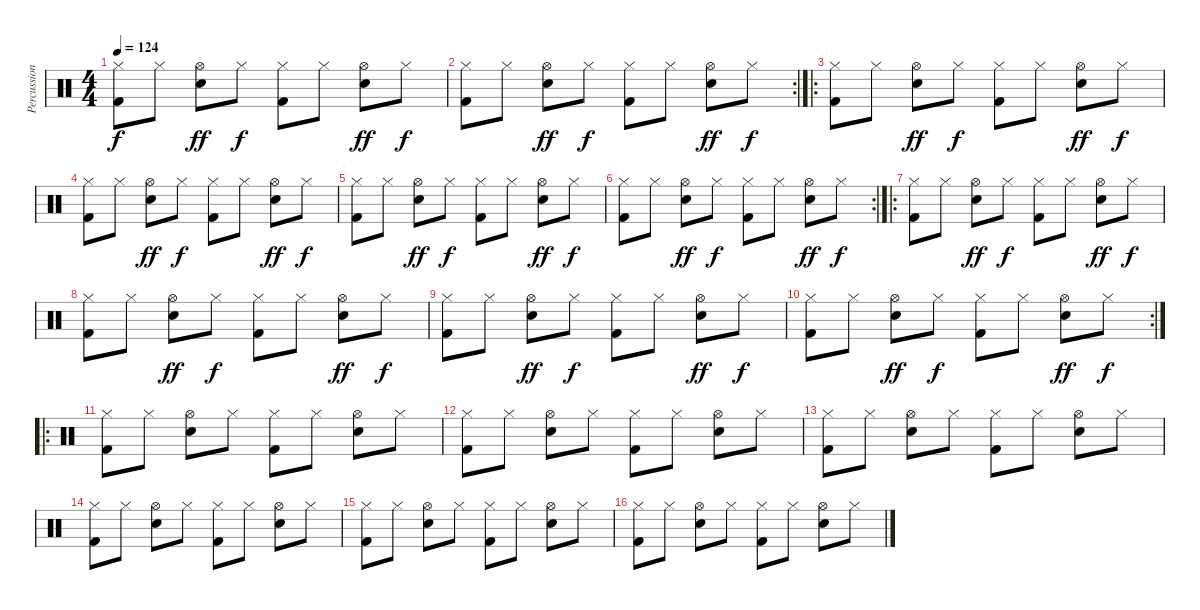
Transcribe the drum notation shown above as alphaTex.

\track ("Percussion" "Percussion") {instrument percussion}
\staff {score}
\articulation defaults
\ts (4 4)
\tempo 124
\clef neutral
\ks c
("Hi-Hat (closed)" "Kick (hit) 2").8{dy f} "Hi-Hat (closed)".8 ("Hi-Hat (open)" "Snare (hit) 2").8{dy ff} "Hi-Hat (closed)".8{dy f} ("Hi-Hat (closed)" "Kick (hit) 2").8 "Hi-Hat (closed)".8 ("Hi-Hat (open)" "Snare (hit) 2").8{dy ff} "Hi-Hat (closed)".8{dy f} |
\rc 2
("Hi-Hat (closed)" "Kick (hit) 2").8 "Hi-Hat (closed)".8 ("Hi-Hat (open)" "Snare (hit) 2").8{dy ff} "Hi-Hat (closed)".8{dy f} ("Hi-Hat (closed)" "Kick (hit) 2").8 "Hi-Hat (closed)".8 ("Hi-Hat (open)" "Snare (hit) 2").8{dy ff} "Hi-Hat (closed)".8{dy f} |
\ro
("Hi-Hat (closed)" "Kick (hit) 2").8 "Hi-Hat (closed)".8 ("Hi-Hat (open)" "Snare (hit) 2").8{dy ff} "Hi-Hat (closed)".8{dy f} ("Hi-Hat (closed)" "Kick (hit) 2").8 "Hi-Hat (closed)".8 ("Hi-Hat (open)" "Snare (hit) 2").8{dy ff} "Hi-Hat (closed)".8{dy f} |
("Hi-Hat (closed)" "Kick (hit) 2").8 "Hi-Hat (closed)".8 ("Hi-Hat (open)" "Snare (hit) 2").8{dy ff} "Hi-Hat (closed)".8{dy f} ("Hi-Hat (closed)" "Kick (hit) 2").8 "Hi-Hat (closed)".8 ("Hi-Hat (open)" "Snare (hit) 2").8{dy ff} "Hi-Hat (closed)".8{dy f} |
("Hi-Hat (closed)" "Kick (hit) 2").8 "Hi-Hat (closed)".8 ("Hi-Hat (open)" "Snare (hit) 2").8{dy ff} "Hi-Hat (closed)".8{dy f} ("Hi-Hat (closed)" "Kick (hit) 2").8 "Hi-Hat (closed)".8 ("Hi-Hat (open)" "Snare (hit) 2").8{dy ff} "Hi-Hat (closed)".8{dy f} |
\rc 2
("Hi-Hat (closed)" "Kick (hit) 2").8 "Hi-Hat (closed)".8 ("Hi-Hat (open)" "Snare (hit) 2").8{dy ff} "Hi-Hat (closed)".8{dy f} ("Hi-Hat (closed)" "Kick (hit) 2").8 "Hi-Hat (closed)".8 ("Hi-Hat (open)" "Snare (hit) 2").8{dy ff} "Hi-Hat (closed)".8{dy f} |
\ro
("Hi-Hat (closed)" "Kick (hit) 2").8 "Hi-Hat (closed)".8 ("Hi-Hat (open)" "Snare (hit) 2").8{dy ff} "Hi-Hat (closed)".8{dy f} ("Hi-Hat (closed)" "Kick (hit) 2").8 "Hi-Hat (closed)".8 ("Hi-Hat (open)" "Snare (hit) 2").8{dy ff} "Hi-Hat (closed)".8{dy f} |
("Hi-Hat (closed)" "Kick (hit) 2").8 "Hi-Hat (closed)".8 ("Hi-Hat (open)" "Snare (hit) 2").8{dy ff} "Hi-Hat (closed)".8{dy f} ("Hi-Hat (closed)" "Kick (hit) 2").8 "Hi-Hat (closed)".8 ("Hi-Hat (open)" "Snare (hit) 2").8{dy ff} "Hi-Hat (closed)".8{dy f} |
("Hi-Hat (closed)" "Kick (hit) 2").8 "Hi-Hat (closed)".8 ("Hi-Hat (open)" "Snare (hit) 2").8{dy ff} "Hi-Hat (closed)".8{dy f} ("Hi-Hat (closed)" "Kick (hit) 2").8 "Hi-Hat (closed)".8 ("Hi-Hat (open)" "Snare (hit) 2").8{dy ff} "Hi-Hat (closed)".8{dy f} |
\rc 2
("Hi-Hat (closed)" "Kick (hit) 2").8 "Hi-Hat (closed)".8 ("Hi-Hat (open)" "Snare (hit) 2").8{dy ff} "Hi-Hat (closed)".8{dy f} ("Hi-Hat (closed)" "Kick (hit) 2").8 "Hi-Hat (closed)".8 ("Hi-Hat (open)" "Snare (hit) 2").8{dy ff} "Hi-Hat (closed)".8{dy f} |
\ro
("Hi-Hat (closed)" "Kick (hit) 2").8 "Hi-Hat (closed)".8 ("Hi-Hat (open)" "Snare (hit) 2").8 "Hi-Hat (closed)".8 ("Hi-Hat (closed)" "Kick (hit) 2").8 "Hi-Hat (closed)".8 ("Hi-Hat (open)" "Snare (hit) 2").8 "Hi-Hat (closed)".8 |
("Hi-Hat (closed)" "Kick (hit) 2").8 "Hi-Hat (closed)".8 ("Hi-Hat (open)" "Snare (hit) 2").8 "Hi-Hat (closed)".8 ("Hi-Hat (closed)" "Kick (hit) 2").8 "Hi-Hat (closed)".8 ("Hi-Hat (open)" "Snare (hit) 2").8 "Hi-Hat (closed)".8 |
("Hi-Hat (closed)" "Kick (hit) 2").8 "Hi-Hat (closed)".8 ("Hi-Hat (open)" "Snare (hit) 2").8 "Hi-Hat (closed)".8 ("Hi-Hat (closed)" "Kick (hit) 2").8 "Hi-Hat (closed)".8 ("Hi-Hat (open)" "Snare (hit) 2").8 "Hi-Hat (closed)".8 |
("Hi-Hat (closed)" "Kick (hit) 2").8 "Hi-Hat (closed)".8 ("Hi-Hat (open)" "Snare (hit) 2").8 "Hi-Hat (closed)".8 ("Hi-Hat (closed)" "Kick (hit) 2").8 "Hi-Hat (closed)".8 ("Hi-Hat (open)" "Snare (hit) 2").8 "Hi-Hat (closed)".8 |
("Hi-Hat (closed)" "Kick (hit) 2").8 "Hi-Hat (closed)".8 ("Hi-Hat (open)" "Snare (hit) 2").8 "Hi-Hat (closed)".8 ("Hi-Hat (closed)" "Kick (hit) 2").8 "Hi-Hat (closed)".8 ("Hi-Hat (open)" "Snare (hit) 2").8 "Hi-Hat (closed)".8 |
("Hi-Hat (closed)" "Kick (hit) 2").8 "Hi-Hat (closed)".8 ("Hi-Hat (open)" "Snare (hit) 2").8 "Hi-Hat (closed)".8 ("Hi-Hat (closed)" "Kick (hit) 2").8 "Hi-Hat (closed)".8 ("Hi-Hat (open)" "Snare (hit) 2").8 "Hi-Hat (closed)".8
